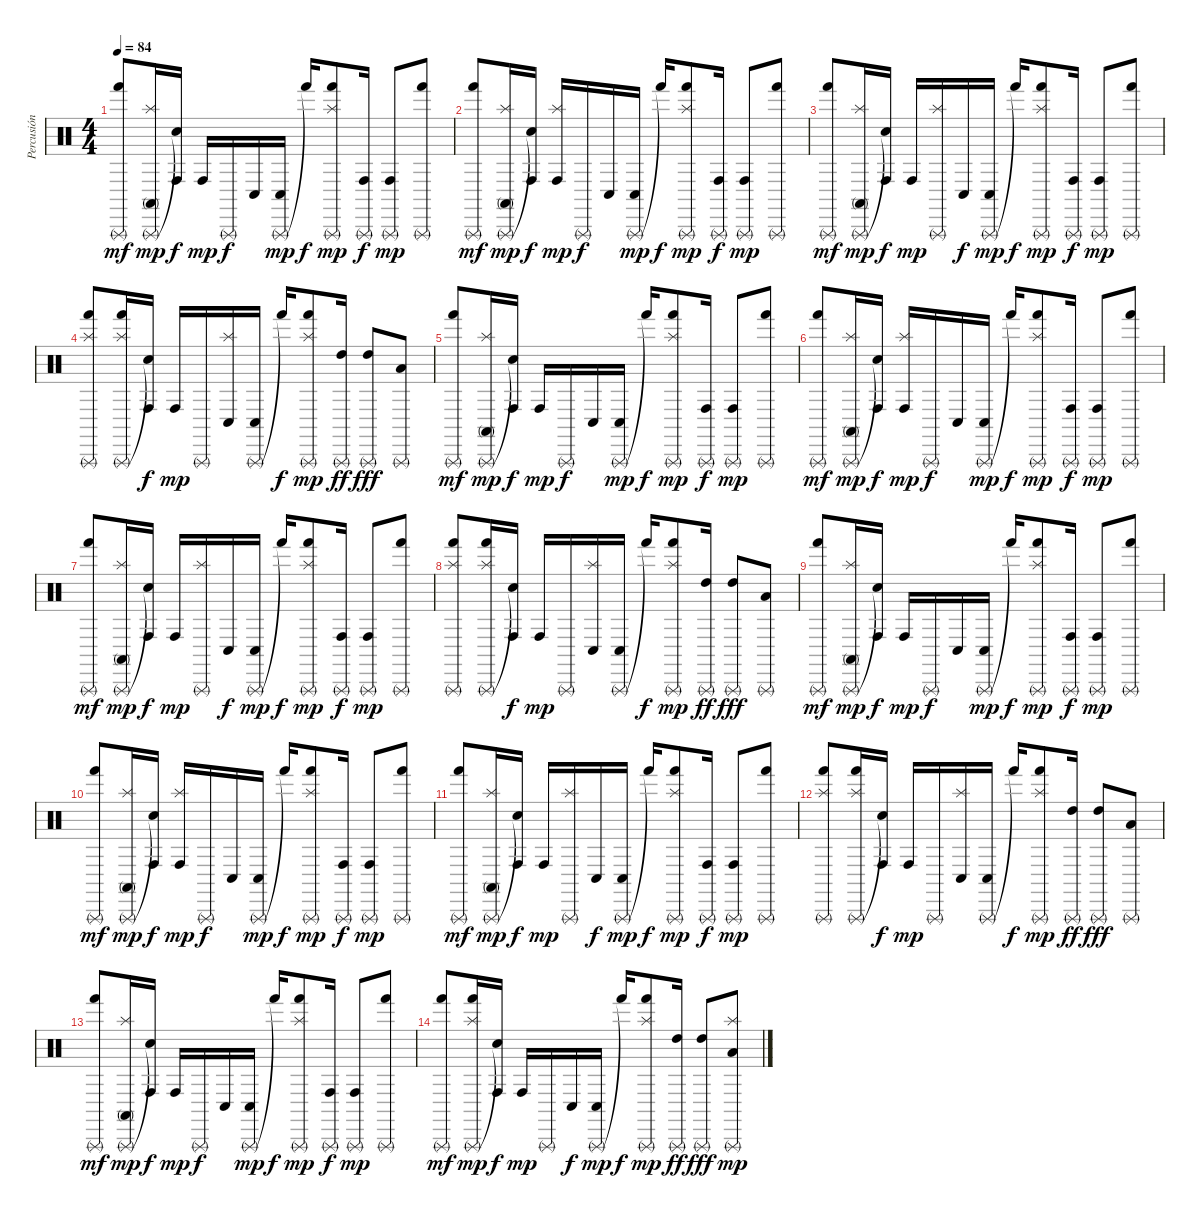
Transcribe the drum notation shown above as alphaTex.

\track ("Percusión" "Percusión") {instrument percussion}
\staff {score}
\articulation defaults
\ts (4 4)
\tempo 84
\clef neutral
\ks c
("Triangle (rnute)" "Hand (hit)").8{dy mf} ("Triangle (rnute)" "Conga high (mute)" "Splash (hit)").16{dy mp} ("Snare (hit)"{t} "Conga high (hit)").16{dy f} "Conga high (hit)".16{dy mp} "Triangle (rnute)".16{dy f} "Conga low (hit)".16 ("Triangle (rnute)" "Conga low (hit)").16{dy mp} "Hand (hit)"{t}.16{dy f} ("Triangle (rnute)" "Hand (hit)" "Splash (hit)").8{dy mp} ("Triangle (rnute)" "Conga high (hit)").16{dy f} ("Triangle (rnute)" "Conga high (hit)").8{dy mp} ("Triangle (rnute)" "Hand (hit)").8 |
("Triangle (rnute)" "Hand (hit)").8{dy mf} ("Triangle (rnute)" "Conga high (mute)" "Splash (hit)").16{dy mp} ("Snare (hit)"{t} "Conga high (hit)").16{dy f} ("Conga high (hit)" "Splash (hit)").16{dy mp} "Triangle (rnute)".16{dy f} "Conga low (hit)".16 ("Triangle (rnute)" "Conga low (hit)").16{dy mp} "Hand (hit)"{t}.16{dy f} ("Triangle (rnute)" "Hand (hit)" "Splash (hit)").8{dy mp} ("Triangle (rnute)" "Conga high (hit)").16{dy f} ("Triangle (rnute)" "Conga high (hit)").8{dy mp} ("Triangle (rnute)" "Hand (hit)").8 |
("Triangle (rnute)" "Hand (hit)").8{dy mf} ("Triangle (rnute)" "Conga high (mute)" "Splash (hit)").16{dy mp} ("Snare (hit)"{t} "Conga high (hit)").16{dy f} "Conga high (hit)".16{dy mp} ("Triangle (rnute)" "Splash (hit)").16 "Conga low (hit)".16{dy f} ("Triangle (rnute)" "Conga low (hit)").16{dy mp} "Hand (hit)"{t}.16{dy f} ("Triangle (rnute)" "Hand (hit)" "Splash (hit)").8{dy mp} ("Triangle (rnute)" "Conga high (hit)").16{dy f} ("Triangle (rnute)" "Conga high (hit)").8{dy mp} ("Triangle (rnute)" "Hand (hit)").8 |
("Triangle (rnute)" "Hand (hit)" "Splash (hit)").8 ("Triangle (rnute)" "Hand (hit)" "Splash (hit)").16 ("Snare (hit)"{t} "Conga high (hit)").16{dy f} "Conga high (hit)".16{dy mp} "Triangle (rnute)".16 ("Conga low (hit)" "Splash (hit)").16 ("Triangle (rnute)" "Conga low (hit)").16 "Hand (hit)"{t}.16{dy f} ("Triangle (rnute)" "Hand (hit)" "Splash (hit)").8{dy mp} ("Triangle (rnute)" "High Tom (hit)").16{dy ff} ("Triangle (rnute)" "High Tom (hit)").8{dy fff} ("Triangle (rnute)" "Low Tom (hit)").8 |
("Triangle (rnute)" "Hand (hit)").8{dy mf} ("Triangle (rnute)" "Conga high (mute)" "Splash (hit)").16{dy mp} ("Snare (hit)"{t} "Conga high (hit)").16{dy f} "Conga high (hit)".16{dy mp} "Triangle (rnute)".16{dy f} "Conga low (hit)".16 ("Triangle (rnute)" "Conga low (hit)").16{dy mp} "Hand (hit)"{t}.16{dy f} ("Triangle (rnute)" "Hand (hit)" "Splash (hit)").8{dy mp} ("Triangle (rnute)" "Conga high (hit)").16{dy f} ("Triangle (rnute)" "Conga high (hit)").8{dy mp} ("Triangle (rnute)" "Hand (hit)").8 |
("Triangle (rnute)" "Hand (hit)").8{dy mf} ("Triangle (rnute)" "Conga high (mute)" "Splash (hit)").16{dy mp} ("Snare (hit)"{t} "Conga high (hit)").16{dy f} ("Conga high (hit)" "Splash (hit)").16{dy mp} "Triangle (rnute)".16{dy f} "Conga low (hit)".16 ("Triangle (rnute)" "Conga low (hit)").16{dy mp} "Hand (hit)"{t}.16{dy f} ("Triangle (rnute)" "Hand (hit)" "Splash (hit)").8{dy mp} ("Triangle (rnute)" "Conga high (hit)").16{dy f} ("Triangle (rnute)" "Conga high (hit)").8{dy mp} ("Triangle (rnute)" "Hand (hit)").8 |
("Triangle (rnute)" "Hand (hit)").8{dy mf} ("Triangle (rnute)" "Conga high (mute)" "Splash (hit)").16{dy mp} ("Snare (hit)"{t} "Conga high (hit)").16{dy f} "Conga high (hit)".16{dy mp} ("Triangle (rnute)" "Splash (hit)").16 "Conga low (hit)".16{dy f} ("Triangle (rnute)" "Conga low (hit)").16{dy mp} "Hand (hit)"{t}.16{dy f} ("Triangle (rnute)" "Hand (hit)" "Splash (hit)").8{dy mp} ("Triangle (rnute)" "Conga high (hit)").16{dy f} ("Triangle (rnute)" "Conga high (hit)").8{dy mp} ("Triangle (rnute)" "Hand (hit)").8 |
("Triangle (rnute)" "Hand (hit)" "Splash (hit)").8 ("Triangle (rnute)" "Hand (hit)" "Splash (hit)").16 ("Snare (hit)"{t} "Conga high (hit)").16{dy f} "Conga high (hit)".16{dy mp} "Triangle (rnute)".16 ("Conga low (hit)" "Splash (hit)").16 ("Triangle (rnute)" "Conga low (hit)").16 "Hand (hit)"{t}.16{dy f} ("Triangle (rnute)" "Hand (hit)" "Splash (hit)").8{dy mp} ("Triangle (rnute)" "High Tom (hit)").16{dy ff} ("Triangle (rnute)" "High Tom (hit)").8{dy fff} ("Triangle (rnute)" "Low Tom (hit)").8 |
("Triangle (rnute)" "Hand (hit)").8{dy mf} ("Triangle (rnute)" "Conga high (mute)" "Splash (hit)").16{dy mp} ("Snare (hit)"{t} "Conga high (hit)").16{dy f} "Conga high (hit)".16{dy mp} "Triangle (rnute)".16{dy f} "Conga low (hit)".16 ("Triangle (rnute)" "Conga low (hit)").16{dy mp} "Hand (hit)"{t}.16{dy f} ("Triangle (rnute)" "Hand (hit)" "Splash (hit)").8{dy mp} ("Triangle (rnute)" "Conga high (hit)").16{dy f} ("Triangle (rnute)" "Conga high (hit)").8{dy mp} ("Triangle (rnute)" "Hand (hit)").8 |
("Triangle (rnute)" "Hand (hit)").8{dy mf} ("Triangle (rnute)" "Conga high (mute)" "Splash (hit)").16{dy mp} ("Snare (hit)"{t} "Conga high (hit)").16{dy f} ("Conga high (hit)" "Splash (hit)").16{dy mp} "Triangle (rnute)".16{dy f} "Conga low (hit)".16 ("Triangle (rnute)" "Conga low (hit)").16{dy mp} "Hand (hit)"{t}.16{dy f} ("Triangle (rnute)" "Hand (hit)" "Splash (hit)").8{dy mp} ("Triangle (rnute)" "Conga high (hit)").16{dy f} ("Triangle (rnute)" "Conga high (hit)").8{dy mp} ("Triangle (rnute)" "Hand (hit)").8 |
("Triangle (rnute)" "Hand (hit)").8{dy mf} ("Triangle (rnute)" "Conga high (mute)" "Splash (hit)").16{dy mp} ("Snare (hit)"{t} "Conga high (hit)").16{dy f} "Conga high (hit)".16{dy mp} ("Triangle (rnute)" "Splash (hit)").16 "Conga low (hit)".16{dy f} ("Triangle (rnute)" "Conga low (hit)").16{dy mp} "Hand (hit)"{t}.16{dy f} ("Triangle (rnute)" "Hand (hit)" "Splash (hit)").8{dy mp} ("Triangle (rnute)" "Conga high (hit)").16{dy f} ("Triangle (rnute)" "Conga high (hit)").8{dy mp} ("Triangle (rnute)" "Hand (hit)").8 |
("Triangle (rnute)" "Hand (hit)" "Splash (hit)").8 ("Triangle (rnute)" "Hand (hit)" "Splash (hit)").16 ("Snare (hit)"{t} "Conga high (hit)").16{dy f} "Conga high (hit)".16{dy mp} "Triangle (rnute)".16 ("Conga low (hit)" "Splash (hit)").16 ("Triangle (rnute)" "Conga low (hit)").16 "Hand (hit)"{t}.16{dy f} ("Triangle (rnute)" "Hand (hit)" "Splash (hit)").8{dy mp} ("Triangle (rnute)" "High Tom (hit)").16{dy ff} ("Triangle (rnute)" "High Tom (hit)").8{dy fff} ("Triangle (rnute)" "Low Tom (hit)").8 |
("Triangle (rnute)" "Hand (hit)").8{dy mf} ("Triangle (rnute)" "Conga high (mute)" "Splash (hit)").16{dy mp} ("Snare (hit)"{t} "Conga high (hit)").16{dy f} "Conga high (hit)".16{dy mp} "Triangle (rnute)".16{dy f} "Conga low (hit)".16 ("Triangle (rnute)" "Conga low (hit)").16{dy mp} "Hand (hit)"{t}.16{dy f} ("Triangle (rnute)" "Hand (hit)" "Splash (hit)").8{dy mp} ("Triangle (rnute)" "Conga high (hit)").16{dy f} ("Triangle (rnute)" "Conga high (hit)").8{dy mp} ("Triangle (rnute)" "Hand (hit)").8 |
("Triangle (rnute)" "Hand (hit)").8{dy mf} ("Triangle (rnute)" "Hand (hit)" "Splash (hit)").16{dy mp} ("Snare (hit)"{t} "Conga high (hit)").16{dy f} "Conga high (hit)".16{dy mp} "Triangle (rnute)".16 "Conga low (hit)".16{dy f} ("Triangle (rnute)" "Conga low (hit)").16{dy mp} "Hand (hit)"{t}.16{dy f} ("Triangle (rnute)" "Hand (hit)" "Splash (hit)").8{dy mp} ("Triangle (rnute)" "High Tom (hit)").16{dy ff} ("Triangle (rnute)" "High Tom (hit)").8{dy fff} ("Triangle (rnute)" "Low Tom (hit)" "Splash (hit)").8{dy mp}
